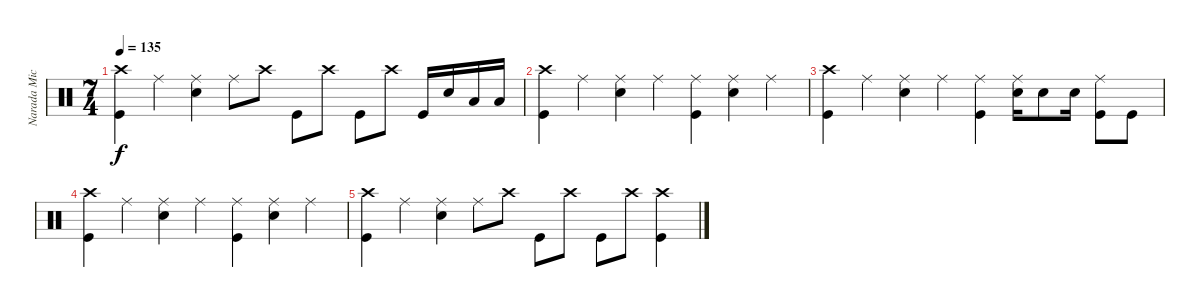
\track ("Narada Michael Walden" "Narada Mic") {instrument percussion}
\staff {score}
\articulation defaults
\ts (7 4)
\tempo 135
\clef neutral
\ks c
("Kick (hit)" "Crash high (hit)").4{dy f} "Ride (middle)".4 ("Ride (middle)" "Snare (hit) 2").4 "Ride (middle)".8 "Crash high (hit)".8 "Kick (hit)".8 "Crash high (hit)".8 "Kick (hit)".8 "Crash high (hit)".8 "Kick (hit)".16 "Snare (hit) 2".16 "Low Tom (hit)".16 "Low Tom (hit)".16 |
("Kick (hit)" "Crash high (hit)").4 "Ride (middle)".4 ("Ride (middle)" "Snare (hit) 2").4 "Ride (middle)".4 ("Ride (middle)" "Kick (hit)").4 ("Ride (middle)" "Snare (hit) 2").4 "Ride (middle)".4 |
("Kick (hit)" "Crash high (hit)").4 "Ride (middle)".4 ("Ride (middle)" "Snare (hit) 2").4 "Ride (middle)".4 ("Ride (middle)" "Kick (hit)").4 ("Ride (middle)" "Snare (hit) 2").16 "Snare (hit) 2".8 "Snare (hit) 2".16 ("Kick (hit)" "Ride (middle)").8 "Kick (hit)".8 |
("Kick (hit)" "Crash high (hit)").4 "Ride (middle)".4 ("Ride (middle)" "Snare (hit) 2").4 "Ride (middle)".4 ("Ride (middle)" "Kick (hit)").4 ("Ride (middle)" "Snare (hit) 2").4 "Ride (middle)".4 |
("Kick (hit)" "Crash high (hit)").4 "Ride (middle)".4 ("Ride (middle)" "Snare (hit) 2").4 "Ride (middle)".8 "Crash high (hit)".8 "Kick (hit)".8 "Crash high (hit)".8 "Kick (hit)".8 "Crash high (hit)".8 ("Kick (hit)" "Crash high (hit)").4
